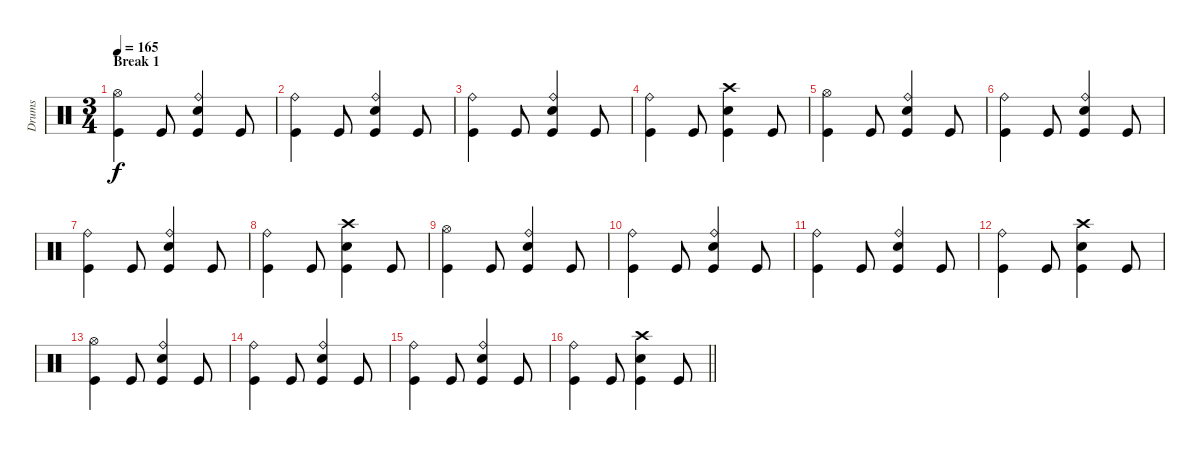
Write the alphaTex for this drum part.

\track ("Drums" "Drums") {instrument percussion}
\staff {score}
\articulation defaults
\ts (3 4)
\section ("" "Break 1")
\tempo 165
\clef neutral
\ks c
("Hi-Hat (open)" "Kick (hit)").4{dy f} "Kick (hit)".8 ("Ride (bell)" "Snare (hit) 2" "Kick (hit)").4 "Kick (hit)".8 |
("Ride (bell)" "Kick (hit)").4 "Kick (hit)".8 ("Ride (bell)" "Snare (hit) 2" "Kick (hit)").4 "Kick (hit)".8 |
("Ride (bell)" "Kick (hit)").4 "Kick (hit)".8 ("Ride (bell)" "Snare (hit) 2" "Kick (hit)").4 "Kick (hit)".8 |
("Ride (bell)" "Kick (hit)").4 "Kick (hit)".8 ("Crash high (hit)" "Snare (hit) 2" "Kick (hit)").4 "Kick (hit)".8 |
("Hi-Hat (open)" "Kick (hit)").4 "Kick (hit)".8 ("Ride (bell)" "Snare (hit) 2" "Kick (hit)").4 "Kick (hit)".8 |
("Ride (bell)" "Kick (hit)").4 "Kick (hit)".8 ("Ride (bell)" "Snare (hit) 2" "Kick (hit)").4 "Kick (hit)".8 |
("Ride (bell)" "Kick (hit)").4 "Kick (hit)".8 ("Ride (bell)" "Snare (hit) 2" "Kick (hit)").4 "Kick (hit)".8 |
("Ride (bell)" "Kick (hit)").4 "Kick (hit)".8 ("Crash high (hit)" "Snare (hit) 2" "Kick (hit)").4 "Kick (hit)".8 |
("Hi-Hat (open)" "Kick (hit)").4 "Kick (hit)".8 ("Ride (bell)" "Snare (hit) 2" "Kick (hit)").4 "Kick (hit)".8 |
("Ride (bell)" "Kick (hit)").4 "Kick (hit)".8 ("Ride (bell)" "Snare (hit) 2" "Kick (hit)").4 "Kick (hit)".8 |
("Ride (bell)" "Kick (hit)").4 "Kick (hit)".8 ("Ride (bell)" "Snare (hit) 2" "Kick (hit)").4 "Kick (hit)".8 |
("Ride (bell)" "Kick (hit)").4 "Kick (hit)".8 ("Crash high (hit)" "Snare (hit) 2" "Kick (hit)").4 "Kick (hit)".8 |
("Hi-Hat (open)" "Kick (hit)").4 "Kick (hit)".8 ("Ride (bell)" "Snare (hit) 2" "Kick (hit)").4 "Kick (hit)".8 |
("Ride (bell)" "Kick (hit)").4 "Kick (hit)".8 ("Ride (bell)" "Snare (hit) 2" "Kick (hit)").4 "Kick (hit)".8 |
("Ride (bell)" "Kick (hit)").4 "Kick (hit)".8 ("Ride (bell)" "Snare (hit) 2" "Kick (hit)").4 "Kick (hit)".8 |
\barLineRight lightlight
("Ride (bell)" "Kick (hit)").4 "Kick (hit)".8 ("Crash high (hit)" "Snare (hit) 2" "Kick (hit)").4 "Kick (hit)".8
